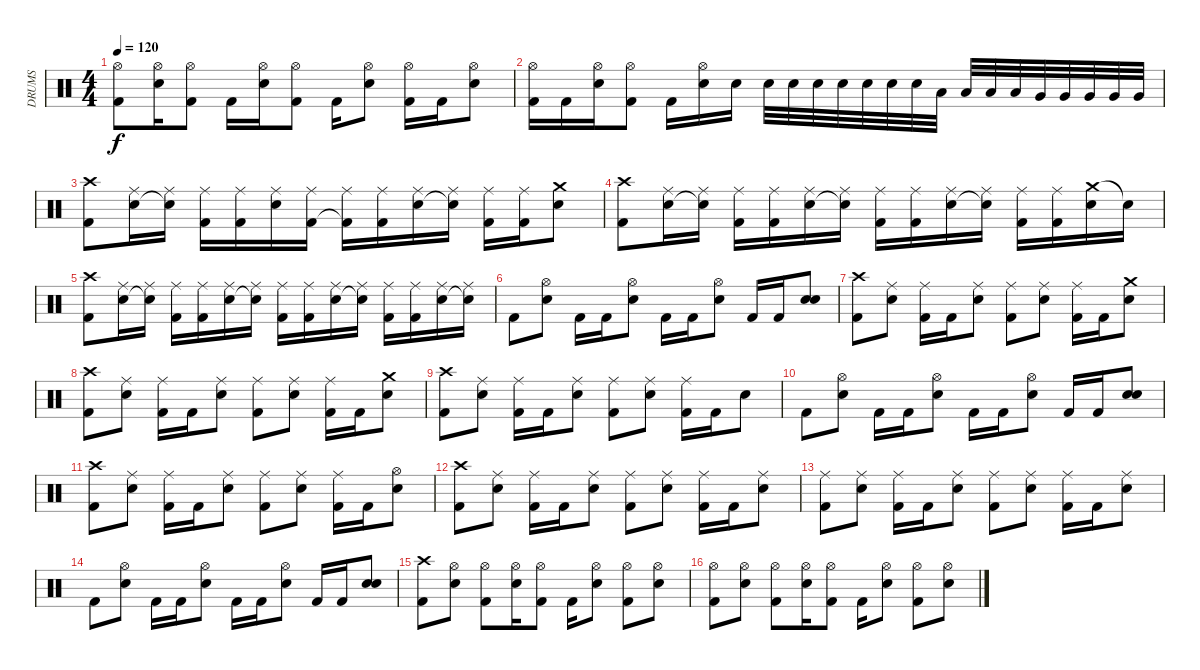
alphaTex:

\track ("DRUMS" "DRUMS") {instrument percussion}
\staff {score}
\articulation defaults
\ts (4 4)
\tempo 120
\clef neutral
\ks c
("Hi-Hat (open)" "Kick (hit) 2").8{dy f} ("Hi-Hat (open)" "Snare (hit) 2").16 ("Hi-Hat (open)" "Kick (hit) 2").8 "Kick (hit) 2".16 ("Hi-Hat (open)" "Snare (hit) 2").16 ("Hi-Hat (open)" "Kick (hit) 2").8 "Kick (hit) 2".16 ("Hi-Hat (open)" "Snare (hit) 2").8 ("Hi-Hat (open)" "Kick (hit) 2").16 "Kick (hit) 2".16 ("Hi-Hat (open)" "Snare (hit) 2").8 |
("Hi-Hat (open)" "Kick (hit) 2").16 "Kick (hit) 2".16 ("Hi-Hat (open)" "Snare (hit) 2").16 ("Hi-Hat (open)" "Kick (hit) 2").8 "Kick (hit) 2".16 ("Hi-Hat (open)" "Snare (hit) 2").16 "Snare (hit) 2".16 "Snare (hit) 2".32 "Snare (hit) 2".32 "Snare (hit) 2".32 "Snare (hit) 2".32 "Snare (hit) 2".32 "Snare (hit) 2".32 "Snare (hit) 2".32 "Low Tom (hit)".32 "Low Tom (hit)".32 "Low Tom (hit)".32 "Low Tom (hit)".32 "Very Low Tom (hit)".32 "Very Low Tom (hit)".32 "Very Low Tom (hit)".32 "Very Low Tom (hit)".32 "Very Low Tom (hit)".32 |
("Crash high (hit)" "Kick (hit) 2").8 ("Ride (middle)" "Snare (hit) 2").16 ("Ride (middle)" "Snare (hit) 2"{t}).16 ("Ride (middle)" "Kick (hit) 2").16 ("Ride (middle)" "Kick (hit) 2").16 ("Ride (middle)" "Snare (hit) 2").16 ("Ride (middle)" "Kick (hit) 2").16 ("Ride (middle)" "Kick (hit) 2"{t}).16 ("Ride (middle)" "Kick (hit) 2").16 ("Ride (middle)" "Snare (hit) 2").16 ("Ride (middle)" "Snare (hit) 2"{t}).16 ("Ride (middle)" "Kick (hit) 2").16 ("Ride (middle)" "Kick (hit) 2").16 ("Crash medium (hit)" "Snare (hit) 2").8 |
("Crash high (hit)" "Kick (hit) 2").8 ("Ride (middle)" "Snare (hit) 2").16 ("Ride (middle)" "Snare (hit) 2"{t}).16 ("Ride (middle)" "Kick (hit) 2").16 ("Ride (middle)" "Kick (hit) 2").16 ("Ride (middle)" "Snare (hit) 2").16 ("Ride (middle)" "Snare (hit) 2"{t}).16 ("Ride (middle)" "Kick (hit) 2").16 ("Ride (middle)" "Kick (hit) 2").16 ("Ride (middle)" "Snare (hit) 2").16 ("Ride (middle)" "Snare (hit) 2"{t}).16 ("Ride (middle)" "Kick (hit) 2").16 ("Ride (middle)" "Kick (hit) 2").16 ("Crash medium (hit)" "Snare (hit) 2").16 "Snare (hit) 2"{t}.16 |
("Crash high (hit)" "Kick (hit) 2").8 ("Ride (middle)" "Snare (hit) 2").16 ("Ride (middle)" "Snare (hit) 2"{t}).16 ("Ride (middle)" "Kick (hit) 2").16 ("Ride (middle)" "Kick (hit) 2").16 ("Ride (middle)" "Snare (hit) 2").16 ("Ride (middle)" "Snare (hit) 2"{t}).16 ("Ride (middle)" "Kick (hit) 2").16 ("Ride (middle)" "Kick (hit) 2").16 ("Ride (middle)" "Snare (hit) 2").16 ("Ride (middle)" "Snare (hit) 2"{t}).16 ("Ride (middle)" "Kick (hit) 2").16 ("Ride (middle)" "Kick (hit) 2").16 ("Ride (middle)" "Snare (hit) 2").16 ("Ride (middle)" "Snare (hit) 2"{t}).16 |
"Kick (hit) 2".8 ("Hi-Hat (open)" "Snare (hit) 2").8 "Kick (hit) 2".16 "Kick (hit) 2".16 ("Hi-Hat (open)" "Snare (hit) 2").8 "Kick (hit) 2".16 "Kick (hit) 2".16 ("Hi-Hat (open)" "Snare (hit) 2").8 "Kick (hit) 2".16 "Kick (hit) 2".16 ("Snare (hit) 2" "Snare (hit) 2").8 |
("Crash high (hit)" "Kick (hit) 2").8 ("Ride (middle)" "Snare (hit) 2").8 ("Ride (middle)" "Kick (hit) 2").16 "Kick (hit) 2".16 ("Ride (middle)" "Snare (hit) 2").8 ("Ride (middle)" "Kick (hit) 2").8 ("Ride (middle)" "Snare (hit) 2").8 ("Ride (middle)" "Kick (hit) 2").16 "Kick (hit) 2".16 ("Crash medium (hit)" "Snare (hit) 2").8 |
("Crash high (hit)" "Kick (hit) 2").8 ("Ride (middle)" "Snare (hit) 2").8 ("Ride (middle)" "Kick (hit) 2").16 "Kick (hit) 2".16 ("Ride (middle)" "Snare (hit) 2").8 ("Ride (middle)" "Kick (hit) 2").8 ("Ride (middle)" "Snare (hit) 2").8 ("Ride (middle)" "Kick (hit) 2").16 "Kick (hit) 2".16 ("Crash medium (hit)" "Snare (hit) 2").8 |
("Crash high (hit)" "Kick (hit) 2").8 ("Ride (middle)" "Snare (hit) 2").8 ("Ride (middle)" "Kick (hit) 2").16 "Kick (hit) 2".16 ("Ride (middle)" "Snare (hit) 2").8 ("Ride (middle)" "Kick (hit) 2").8 ("Ride (middle)" "Snare (hit) 2").8 ("Ride (middle)" "Kick (hit) 2").16 "Kick (hit) 2".16 "Snare (hit) 2".8 |
"Kick (hit) 2".8 ("Hi-Hat (open)" "Snare (hit) 2").8 "Kick (hit) 2".16 "Kick (hit) 2".16 ("Hi-Hat (open)" "Snare (hit) 2").8 "Kick (hit) 2".16 "Kick (hit) 2".16 ("Hi-Hat (open)" "Snare (hit) 2").8 "Kick (hit) 2".16 "Kick (hit) 2".16 ("Snare (hit) 2" "Snare (hit) 2").8 |
("Crash high (hit)" "Kick (hit) 2").8 ("Ride (middle)" "Snare (hit) 2").8 ("Ride (middle)" "Kick (hit) 2").16 "Kick (hit) 2".16 ("Ride (middle)" "Snare (hit) 2").8 ("Ride (middle)" "Kick (hit) 2").8 ("Ride (middle)" "Snare (hit) 2").8 ("Ride (middle)" "Kick (hit) 2").16 "Kick (hit) 2".16 ("Hi-Hat (open)" "Snare (hit) 2").8 |
("Crash high (hit)" "Kick (hit) 2").8 ("Ride (middle)" "Snare (hit) 2").8 ("Ride (middle)" "Kick (hit) 2").16 "Kick (hit) 2".16 ("Ride (middle)" "Snare (hit) 2").8 ("Ride (middle)" "Kick (hit) 2").8 ("Ride (middle)" "Snare (hit) 2").8 ("Ride (middle)" "Kick (hit) 2").16 "Kick (hit) 2".16 ("Ride (middle)" "Snare (hit) 2").8 |
("Ride (middle)" "Kick (hit) 2").8 ("Ride (middle)" "Snare (hit) 2").8 ("Ride (middle)" "Kick (hit) 2").16 "Kick (hit) 2".16 ("Ride (middle)" "Snare (hit) 2").8 ("Ride (middle)" "Kick (hit) 2").8 ("Ride (middle)" "Snare (hit) 2").8 ("Ride (middle)" "Kick (hit) 2").16 "Kick (hit) 2".16 ("Ride (middle)" "Snare (hit) 2").8 |
"Kick (hit) 2".8 ("Hi-Hat (open)" "Snare (hit) 2").8 "Kick (hit) 2".16 "Kick (hit) 2".16 ("Hi-Hat (open)" "Snare (hit) 2").8 "Kick (hit) 2".16 "Kick (hit) 2".16 ("Hi-Hat (open)" "Snare (hit) 2").8 "Kick (hit) 2".16 "Kick (hit) 2".16 ("Snare (hit) 2" "Snare (hit) 2").8 |
("Crash high (hit)" "Kick (hit) 2").8 ("Hi-Hat (open)" "Snare (hit) 2").8 ("Hi-Hat (open)" "Kick (hit) 2").8 ("Hi-Hat (open)" "Snare (hit) 2").16 ("Hi-Hat (open)" "Kick (hit) 2").8 "Kick (hit) 2".16 ("Hi-Hat (open)" "Snare (hit) 2").8 ("Hi-Hat (open)" "Kick (hit) 2").8 ("Hi-Hat (open)" "Snare (hit) 2").8 |
("Hi-Hat (open)" "Kick (hit) 2").8 ("Hi-Hat (open)" "Snare (hit) 2").8 ("Hi-Hat (open)" "Kick (hit) 2").8 ("Hi-Hat (open)" "Snare (hit) 2").16 ("Hi-Hat (open)" "Kick (hit) 2").8 "Kick (hit) 2".16 ("Hi-Hat (open)" "Snare (hit) 2").8 ("Hi-Hat (open)" "Kick (hit) 2").8 ("Hi-Hat (open)" "Snare (hit) 2").8
